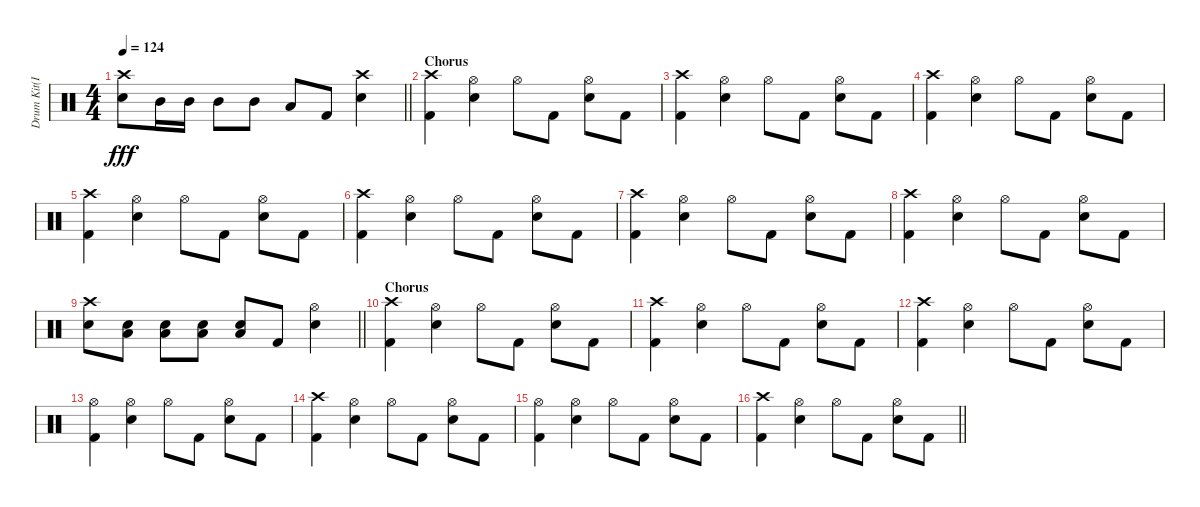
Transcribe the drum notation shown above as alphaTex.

\track ("Drum Kit(Inu)" "Drum Kit(I") {instrument percussion}
\staff {score}
\articulation defaults
\ts (4 4)
\tempo 124
\clef neutral
\barLineRight lightlight
\ks c
("Electric Snare (hit)" "Crash high (hit)").8{dy fff} "Mid Tom (hit)".16 "Mid Tom (hit)".16 "Mid Tom (hit)".8 "Mid Tom (hit)".8 "Low Tom (hit)".8 "Kick (hit) 2".8 ("Crash high (hit)" "Electric Snare (hit)").4 |
\section ("" "Chorus")
("Kick (hit) 2" "Crash high (hit)").4 ("Hi-Hat (open)" "Electric Snare (hit)").4 "Hi-Hat (open)".8 "Kick (hit) 2".8 ("Hi-Hat (open)" "Electric Snare (hit)").8 "Kick (hit) 2".8 |
("Kick (hit) 2" "Crash high (hit)").4 ("Hi-Hat (open)" "Electric Snare (hit)").4 "Hi-Hat (open)".8 "Kick (hit) 2".8 ("Hi-Hat (open)" "Electric Snare (hit)").8 "Kick (hit) 2".8 |
("Kick (hit) 2" "Crash high (hit)").4 ("Hi-Hat (open)" "Electric Snare (hit)").4 "Hi-Hat (open)".8 "Kick (hit) 2".8 ("Hi-Hat (open)" "Electric Snare (hit)").8 "Kick (hit) 2".8 |
("Kick (hit) 2" "Crash high (hit)").4 ("Hi-Hat (open)" "Electric Snare (hit)").4 "Hi-Hat (open)".8 "Kick (hit) 2".8 ("Hi-Hat (open)" "Electric Snare (hit)").8 "Kick (hit) 2".8 |
("Kick (hit) 2" "Crash high (hit)").4 ("Hi-Hat (open)" "Electric Snare (hit)").4 "Hi-Hat (open)".8 "Kick (hit) 2".8 ("Hi-Hat (open)" "Electric Snare (hit)").8 "Kick (hit) 2".8 |
("Kick (hit) 2" "Crash high (hit)").4 ("Hi-Hat (open)" "Electric Snare (hit)").4 "Hi-Hat (open)".8 "Kick (hit) 2".8 ("Hi-Hat (open)" "Electric Snare (hit)").8 "Kick (hit) 2".8 |
("Kick (hit) 2" "Crash high (hit)").4 ("Hi-Hat (open)" "Electric Snare (hit)").4 "Hi-Hat (open)".8 "Kick (hit) 2".8 ("Hi-Hat (open)" "Electric Snare (hit)").8 "Kick (hit) 2".8 |
\barLineRight lightlight
("Crash high (hit)" "Electric Snare (hit)").8 ("Electric Snare (hit)" "Low Tom (hit)").8 ("Electric Snare (hit)" "Low Tom (hit)").8 ("Electric Snare (hit)" "Low Tom (hit)").8 ("Low Tom (hit)" "Electric Snare (hit)").8 "Kick (hit) 2".8 ("Electric Snare (hit)" "Hi-Hat (open)").4 |
\section ("" "Chorus")
("Kick (hit) 2" "Crash high (hit)").4 ("Hi-Hat (open)" "Electric Snare (hit)").4 "Hi-Hat (open)".8 "Kick (hit) 2".8 ("Hi-Hat (open)" "Electric Snare (hit)").8 "Kick (hit) 2".8 |
("Kick (hit) 2" "Crash high (hit)").4 ("Hi-Hat (open)" "Electric Snare (hit)").4 "Hi-Hat (open)".8 "Kick (hit) 2".8 ("Hi-Hat (open)" "Electric Snare (hit)").8 "Kick (hit) 2".8 |
("Kick (hit) 2" "Crash high (hit)").4 ("Hi-Hat (open)" "Electric Snare (hit)").4 "Hi-Hat (open)".8 "Kick (hit) 2".8 ("Hi-Hat (open)" "Electric Snare (hit)").8 "Kick (hit) 2".8 |
("Hi-Hat (open)" "Kick (hit) 2").4 ("Electric Snare (hit)" "Hi-Hat (open)").4 "Hi-Hat (open)".8 "Kick (hit) 2".8 ("Hi-Hat (open)" "Electric Snare (hit)").8 "Kick (hit) 2".8 |
("Kick (hit) 2" "Crash high (hit)").4 ("Hi-Hat (open)" "Electric Snare (hit)").4 "Hi-Hat (open)".8 "Kick (hit) 2".8 ("Hi-Hat (open)" "Electric Snare (hit)").8 "Kick (hit) 2".8 |
("Hi-Hat (open)" "Kick (hit) 2").4 ("Electric Snare (hit)" "Hi-Hat (open)").4 "Hi-Hat (open)".8 "Kick (hit) 2".8 ("Hi-Hat (open)" "Electric Snare (hit)").8 "Kick (hit) 2".8 |
\barLineRight lightlight
("Kick (hit) 2" "Crash high (hit)").4 ("Hi-Hat (open)" "Electric Snare (hit)").4 "Hi-Hat (open)".8 "Kick (hit) 2".8 ("Hi-Hat (open)" "Electric Snare (hit)").8 "Kick (hit) 2".8
